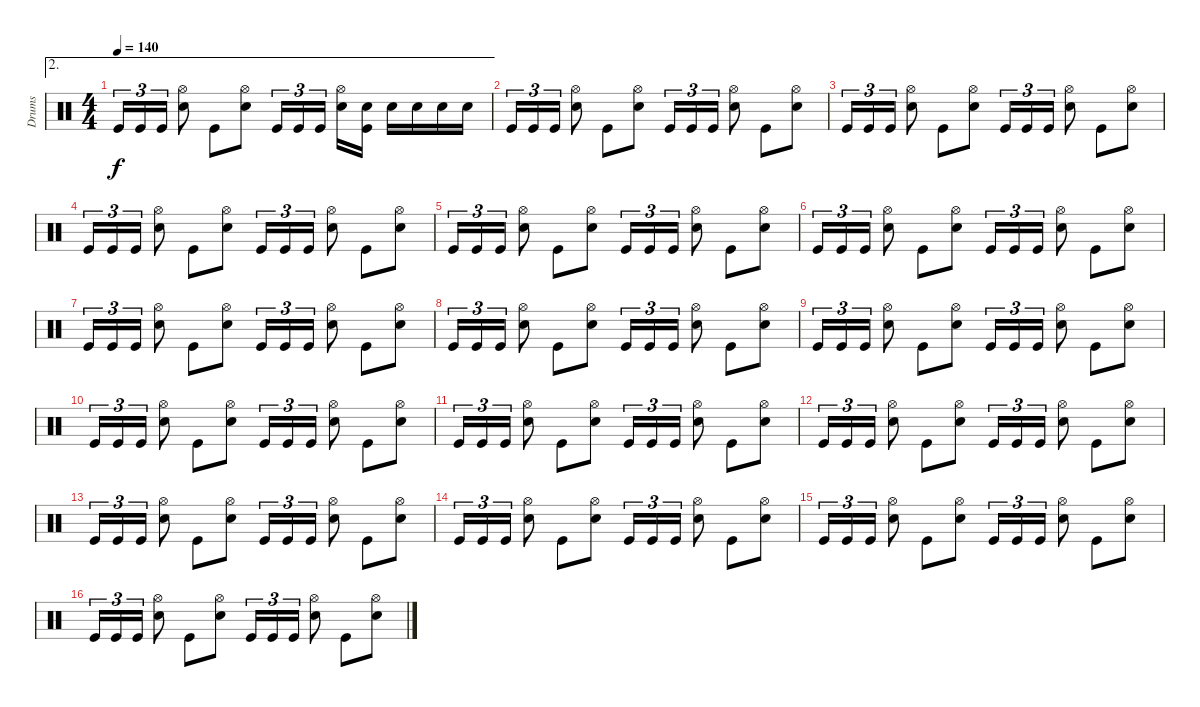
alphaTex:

\track ("Drums" "Drums") {instrument percussion}
\staff {score}
\articulation defaults
\ae 2
\ts (4 4)
\tempo 140
\clef neutral
\ks c "Kick (hit)".16{tu (3 2) dy f} "Kick (hit)".16{tu (3 2)} "Kick (hit)".16{tu (3 2)}
("Electric Snare (hit)" "Hi-Hat (open)").8 "Kick (hit)".8 ("Electric Snare (hit)" "Hi-Hat (open)").8 "Kick (hit)".16{tu (3 2)} "Kick (hit)".16{tu (3 2)} "Kick (hit)".16{tu (3 2)} ("Electric Snare (hit)" "Hi-Hat (open)").16 ("Kick (hit)" "Electric Snare (hit)").16 "Electric Snare (hit)".16 "Electric Snare (hit)".16 "Electric Snare (hit)".16 "Electric Snare (hit)".16 |
"Kick (hit)".16{tu (3 2)} "Kick (hit)".16{tu (3 2)} "Kick (hit)".16{tu (3 2)} ("Electric Snare (hit)" "Hi-Hat (open)").8 "Kick (hit)".8 ("Electric Snare (hit)" "Hi-Hat (open)").8 "Kick (hit)".16{tu (3 2)} "Kick (hit)".16{tu (3 2)} "Kick (hit)".16{tu (3 2)} ("Electric Snare (hit)" "Hi-Hat (open)").8 "Kick (hit)".8 ("Electric Snare (hit)" "Hi-Hat (open)").8 |
"Kick (hit)".16{tu (3 2)} "Kick (hit)".16{tu (3 2)} "Kick (hit)".16{tu (3 2)} ("Electric Snare (hit)" "Hi-Hat (open)").8 "Kick (hit)".8 ("Electric Snare (hit)" "Hi-Hat (open)").8 "Kick (hit)".16{tu (3 2)} "Kick (hit)".16{tu (3 2)} "Kick (hit)".16{tu (3 2)} ("Electric Snare (hit)" "Hi-Hat (open)").8 "Kick (hit)".8 ("Electric Snare (hit)" "Hi-Hat (open)").8 |
"Kick (hit)".16{tu (3 2)} "Kick (hit)".16{tu (3 2)} "Kick (hit)".16{tu (3 2)} ("Electric Snare (hit)" "Hi-Hat (open)").8 "Kick (hit)".8 ("Electric Snare (hit)" "Hi-Hat (open)").8 "Kick (hit)".16{tu (3 2)} "Kick (hit)".16{tu (3 2)} "Kick (hit)".16{tu (3 2)} ("Electric Snare (hit)" "Hi-Hat (open)").8 "Kick (hit)".8 ("Electric Snare (hit)" "Hi-Hat (open)").8 |
"Kick (hit)".16{tu (3 2)} "Kick (hit)".16{tu (3 2)} "Kick (hit)".16{tu (3 2)} ("Electric Snare (hit)" "Hi-Hat (open)").8 "Kick (hit)".8 ("Electric Snare (hit)" "Hi-Hat (open)").8 "Kick (hit)".16{tu (3 2)} "Kick (hit)".16{tu (3 2)} "Kick (hit)".16{tu (3 2)} ("Electric Snare (hit)" "Hi-Hat (open)").8 "Kick (hit)".8 ("Electric Snare (hit)" "Hi-Hat (open)").8 |
"Kick (hit)".16{tu (3 2)} "Kick (hit)".16{tu (3 2)} "Kick (hit)".16{tu (3 2)} ("Electric Snare (hit)" "Hi-Hat (open)").8 "Kick (hit)".8 ("Electric Snare (hit)" "Hi-Hat (open)").8 "Kick (hit)".16{tu (3 2)} "Kick (hit)".16{tu (3 2)} "Kick (hit)".16{tu (3 2)} ("Electric Snare (hit)" "Hi-Hat (open)").8 "Kick (hit)".8 ("Electric Snare (hit)" "Hi-Hat (open)").8 |
"Kick (hit)".16{tu (3 2)} "Kick (hit)".16{tu (3 2)} "Kick (hit)".16{tu (3 2)} ("Electric Snare (hit)" "Hi-Hat (open)").8 "Kick (hit)".8 ("Electric Snare (hit)" "Hi-Hat (open)").8 "Kick (hit)".16{tu (3 2)} "Kick (hit)".16{tu (3 2)} "Kick (hit)".16{tu (3 2)} ("Electric Snare (hit)" "Hi-Hat (open)").8 "Kick (hit)".8 ("Electric Snare (hit)" "Hi-Hat (open)").8 |
"Kick (hit)".16{tu (3 2)} "Kick (hit)".16{tu (3 2)} "Kick (hit)".16{tu (3 2)} ("Electric Snare (hit)" "Hi-Hat (open)").8 "Kick (hit)".8 ("Electric Snare (hit)" "Hi-Hat (open)").8 "Kick (hit)".16{tu (3 2)} "Kick (hit)".16{tu (3 2)} "Kick (hit)".16{tu (3 2)} ("Electric Snare (hit)" "Hi-Hat (open)").8 "Kick (hit)".8 ("Electric Snare (hit)" "Hi-Hat (open)").8 |
"Kick (hit)".16{tu (3 2)} "Kick (hit)".16{tu (3 2)} "Kick (hit)".16{tu (3 2)} ("Electric Snare (hit)" "Hi-Hat (open)").8 "Kick (hit)".8 ("Electric Snare (hit)" "Hi-Hat (open)").8 "Kick (hit)".16{tu (3 2)} "Kick (hit)".16{tu (3 2)} "Kick (hit)".16{tu (3 2)} ("Electric Snare (hit)" "Hi-Hat (open)").8 "Kick (hit)".8 ("Electric Snare (hit)" "Hi-Hat (open)").8 |
"Kick (hit)".16{tu (3 2)} "Kick (hit)".16{tu (3 2)} "Kick (hit)".16{tu (3 2)} ("Electric Snare (hit)" "Hi-Hat (open)").8 "Kick (hit)".8 ("Electric Snare (hit)" "Hi-Hat (open)").8 "Kick (hit)".16{tu (3 2)} "Kick (hit)".16{tu (3 2)} "Kick (hit)".16{tu (3 2)} ("Electric Snare (hit)" "Hi-Hat (open)").8 "Kick (hit)".8 ("Electric Snare (hit)" "Hi-Hat (open)").8 |
"Kick (hit)".16{tu (3 2)} "Kick (hit)".16{tu (3 2)} "Kick (hit)".16{tu (3 2)} ("Electric Snare (hit)" "Hi-Hat (open)").8 "Kick (hit)".8 ("Electric Snare (hit)" "Hi-Hat (open)").8 "Kick (hit)".16{tu (3 2)} "Kick (hit)".16{tu (3 2)} "Kick (hit)".16{tu (3 2)} ("Electric Snare (hit)" "Hi-Hat (open)").8 "Kick (hit)".8 ("Electric Snare (hit)" "Hi-Hat (open)").8 |
"Kick (hit)".16{tu (3 2)} "Kick (hit)".16{tu (3 2)} "Kick (hit)".16{tu (3 2)} ("Electric Snare (hit)" "Hi-Hat (open)").8 "Kick (hit)".8 ("Electric Snare (hit)" "Hi-Hat (open)").8 "Kick (hit)".16{tu (3 2)} "Kick (hit)".16{tu (3 2)} "Kick (hit)".16{tu (3 2)} ("Electric Snare (hit)" "Hi-Hat (open)").8 "Kick (hit)".8 ("Electric Snare (hit)" "Hi-Hat (open)").8 |
"Kick (hit)".16{tu (3 2)} "Kick (hit)".16{tu (3 2)} "Kick (hit)".16{tu (3 2)} ("Electric Snare (hit)" "Hi-Hat (open)").8 "Kick (hit)".8 ("Electric Snare (hit)" "Hi-Hat (open)").8 "Kick (hit)".16{tu (3 2)} "Kick (hit)".16{tu (3 2)} "Kick (hit)".16{tu (3 2)} ("Electric Snare (hit)" "Hi-Hat (open)").8 "Kick (hit)".8 ("Electric Snare (hit)" "Hi-Hat (open)").8 |
"Kick (hit)".16{tu (3 2)} "Kick (hit)".16{tu (3 2)} "Kick (hit)".16{tu (3 2)} ("Electric Snare (hit)" "Hi-Hat (open)").8 "Kick (hit)".8 ("Electric Snare (hit)" "Hi-Hat (open)").8 "Kick (hit)".16{tu (3 2)} "Kick (hit)".16{tu (3 2)} "Kick (hit)".16{tu (3 2)} ("Electric Snare (hit)" "Hi-Hat (open)").8 "Kick (hit)".8 ("Electric Snare (hit)" "Hi-Hat (open)").8 |
"Kick (hit)".16{tu (3 2)} "Kick (hit)".16{tu (3 2)} "Kick (hit)".16{tu (3 2)} ("Electric Snare (hit)" "Hi-Hat (open)").8 "Kick (hit)".8 ("Electric Snare (hit)" "Hi-Hat (open)").8 "Kick (hit)".16{tu (3 2)} "Kick (hit)".16{tu (3 2)} "Kick (hit)".16{tu (3 2)} ("Electric Snare (hit)" "Hi-Hat (open)").8 "Kick (hit)".8 ("Electric Snare (hit)" "Hi-Hat (open)").8 |
"Kick (hit)".16{tu (3 2)} "Kick (hit)".16{tu (3 2)} "Kick (hit)".16{tu (3 2)} ("Electric Snare (hit)" "Hi-Hat (open)").8 "Kick (hit)".8 ("Electric Snare (hit)" "Hi-Hat (open)").8 "Kick (hit)".16{tu (3 2)} "Kick (hit)".16{tu (3 2)} "Kick (hit)".16{tu (3 2)} ("Electric Snare (hit)" "Hi-Hat (open)").8 "Kick (hit)".8 ("Electric Snare (hit)" "Hi-Hat (open)").8
